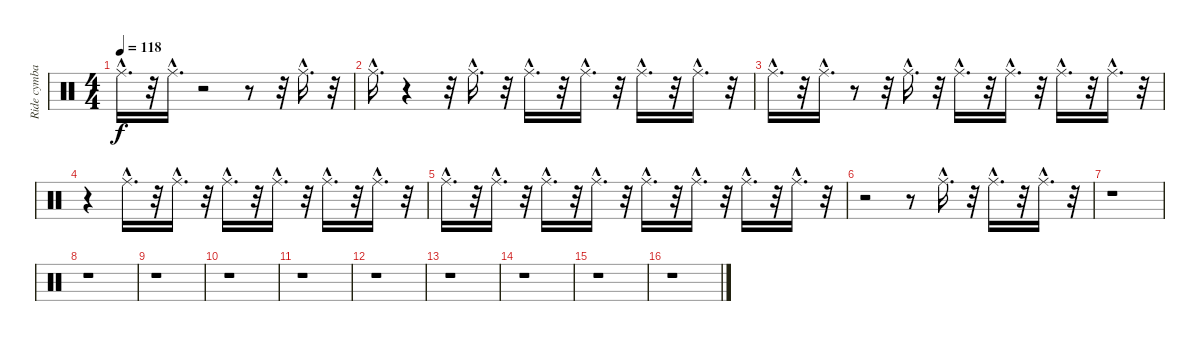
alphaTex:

\track ("Ride cymbal         " "Ride cymba") {instrument percussion}
\staff {score}
\articulation defaults
\ts (4 4)
\tempo 118
\clef neutral
\ks c "Ride (middle)"{hac}.16{d dy f}
r.32 "Ride (middle)"{hac}.16{d} r.2 r.8 r.32 "Ride (middle)"{hac}.16{d} r.32 |
"Ride (middle)"{hac}.16{d} r.4 r.32 "Ride (middle)"{hac}.16{d} r.32 "Ride (middle)"{hac}.16{d} r.32 "Ride (middle)"{hac}.16{d} r.32 "Ride (middle)"{hac}.16{d} r.32 "Ride (middle)"{hac}.16{d} r.32 |
"Ride (middle)"{hac}.16{d} r.32 "Ride (middle)"{hac}.16{d} r.8 r.32 "Ride (middle)"{hac}.16{d} r.32 "Ride (middle)"{hac}.16{d} r.32 "Ride (middle)"{hac}.16{d} r.32 "Ride (middle)"{hac}.16{d} r.32 "Ride (middle)"{hac}.16{d} r.32 |
r.4 "Ride (middle)"{hac}.16{d} r.32 "Ride (middle)"{hac}.16{d} r.32 "Ride (middle)"{hac}.16{d} r.32 "Ride (middle)"{hac}.16{d} r.32 "Ride (middle)"{hac}.16{d} r.32 "Ride (middle)"{hac}.16{d} r.32 |
"Ride (middle)"{hac}.16{d} r.32 "Ride (middle)"{hac}.16{d} r.32 "Ride (middle)"{hac}.16{d} r.32 "Ride (middle)"{hac}.16{d} r.32 "Ride (middle)"{hac}.16{d} r.32 "Ride (middle)"{hac}.16{d} r.32 "Ride (middle)"{hac}.16{d} r.32 "Ride (middle)"{hac}.16{d} r.32 |
r.2 r.8 "Ride (middle)"{hac}.16{d} r.32 "Ride (middle)"{hac}.16{d} r.32 "Ride (middle)"{hac}.16{d} r.32 |
r.1 |
r.1 |
r.1 |
r.1 |
r.1 |
r.1 |
r.1 |
r.1 |
r.1 |
r.1
